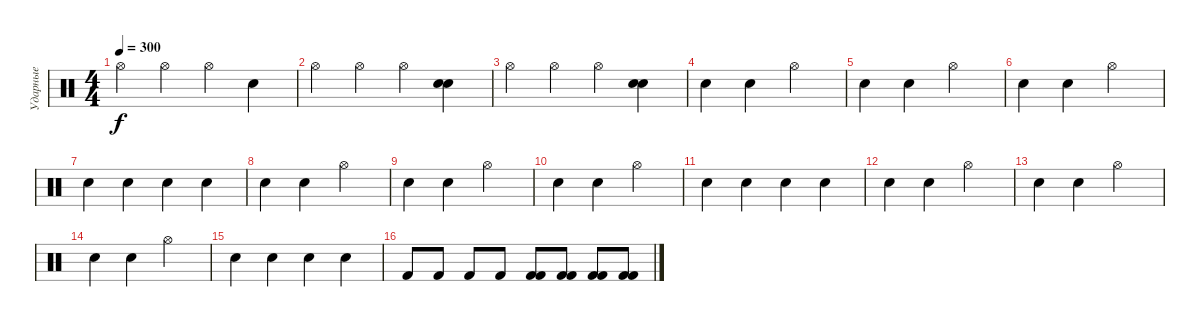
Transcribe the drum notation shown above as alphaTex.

\track ("Ударные" "Ударные") {instrument percussion}
\staff {score}
\articulation defaults
\ts (4 4)
\tempo 300
\clef neutral
\ks c "Hi-Hat (open)".4{dy f} "Hi-Hat (open)".4 "Hi-Hat (open)".4 "Electric Snare (hit)".4
|
"Hi-Hat (open)".4 "Hi-Hat (open)".4 "Hi-Hat (open)".4 ("Electric Snare (hit)" "Electric Snare (hit)").4 |
"Hi-Hat (open)".4 "Hi-Hat (open)".4 "Hi-Hat (open)".4 ("Electric Snare (hit)" "Electric Snare (hit)").4 |
"Electric Snare (hit)".4 "Electric Snare (hit)".4 "Hi-Hat (open)".2 |
"Electric Snare (hit)".4 "Electric Snare (hit)".4 "Hi-Hat (open)".2 |
"Electric Snare (hit)".4 "Electric Snare (hit)".4 "Hi-Hat (open)".2 |
"Electric Snare (hit)".4 "Electric Snare (hit)".4 "Electric Snare (hit)".4 "Electric Snare (hit)".4 |
"Electric Snare (hit)".4 "Electric Snare (hit)".4 "Hi-Hat (open)".2 |
"Electric Snare (hit)".4 "Electric Snare (hit)".4 "Hi-Hat (open)".2 |
"Electric Snare (hit)".4 "Electric Snare (hit)".4 "Hi-Hat (open)".2 |
"Electric Snare (hit)".4 "Electric Snare (hit)".4 "Electric Snare (hit)".4 "Electric Snare (hit)".4 |
"Electric Snare (hit)".4 "Electric Snare (hit)".4 "Hi-Hat (open)".2 |
"Electric Snare (hit)".4 "Electric Snare (hit)".4 "Hi-Hat (open)".2 |
"Electric Snare (hit)".4 "Electric Snare (hit)".4 "Hi-Hat (open)".2 |
"Electric Snare (hit)".4 "Electric Snare (hit)".4 "Electric Snare (hit)".4 "Electric Snare (hit)".4 |
"Kick (hit) 2".8 "Kick (hit) 2".8 "Kick (hit) 2".8 "Kick (hit) 2".8 ("Kick (hit) 2" "Kick (hit) 2").8 ("Kick (hit) 2" "Kick (hit) 2").8 ("Kick (hit) 2" "Kick (hit) 2").8 ("Kick (hit) 2" "Kick (hit) 2").8
